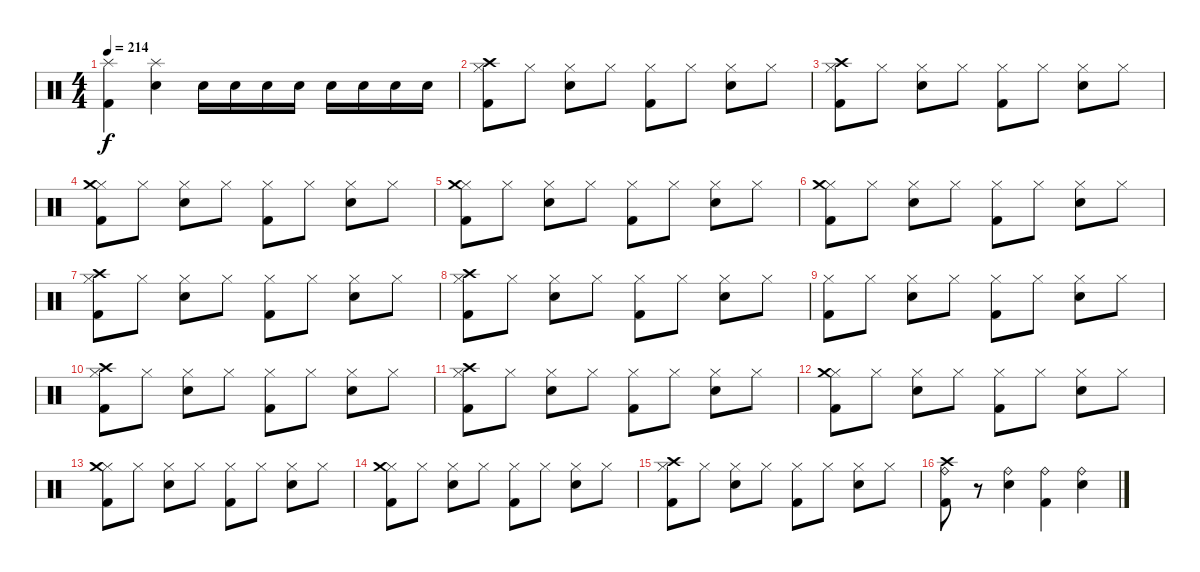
\track "" {instrument percussion}
\staff {score}
\articulation defaults
\ts (4 4)
\tempo 214
\clef neutral
\ks c
("Splash (hit)" "Kick (hit) 2").4{dy f} ("Splash (hit)" "Electric Snare (hit)").4 "Electric Snare (hit)".16 "Electric Snare (hit)".16 "Electric Snare (hit)".16 "Electric Snare (hit)".16 "Electric Snare (hit)".16 "Electric Snare (hit)".16 "Electric Snare (hit)".16 "Electric Snare (hit)".16 |
("Hi-Hat (closed)" "Crash high (hit)" "Kick (hit) 2").8 "Hi-Hat (closed)".8 ("Hi-Hat (closed)" "Electric Snare (hit)").8 "Hi-Hat (closed)".8 ("Hi-Hat (closed)" "Kick (hit) 2").8 "Hi-Hat (closed)".8 ("Hi-Hat (closed)" "Electric Snare (hit)").8 "Hi-Hat (closed)".8 |
("Hi-Hat (closed)" "Crash high (hit)" "Kick (hit) 2").8 "Hi-Hat (closed)".8 ("Hi-Hat (closed)" "Electric Snare (hit)").8 "Hi-Hat (closed)".8 ("Hi-Hat (closed)" "Kick (hit) 2").8 "Hi-Hat (closed)".8 ("Hi-Hat (closed)" "Electric Snare (hit)").8 "Hi-Hat (closed)".8 |
("Hi-Hat (closed)" "Crash medium (hit)" "Kick (hit) 2").8 "Hi-Hat (closed)".8 ("Hi-Hat (closed)" "Electric Snare (hit)").8 "Hi-Hat (closed)".8 ("Hi-Hat (closed)" "Kick (hit) 2").8 "Hi-Hat (closed)".8 ("Hi-Hat (closed)" "Electric Snare (hit)").8 "Hi-Hat (closed)".8 |
("Hi-Hat (closed)" "Crash medium (hit)" "Kick (hit) 2").8 "Hi-Hat (closed)".8 ("Hi-Hat (closed)" "Electric Snare (hit)").8 "Hi-Hat (closed)".8 ("Hi-Hat (closed)" "Kick (hit) 2").8 "Hi-Hat (closed)".8 ("Hi-Hat (closed)" "Electric Snare (hit)").8 "Hi-Hat (closed)".8 |
("Hi-Hat (closed)" "Kick (hit) 2" "Crash medium (hit)").8 "Hi-Hat (closed)".8 ("Hi-Hat (closed)" "Electric Snare (hit)").8 "Hi-Hat (closed)".8 ("Hi-Hat (closed)" "Kick (hit) 2").8 "Hi-Hat (closed)".8 ("Hi-Hat (closed)" "Electric Snare (hit)").8 "Hi-Hat (closed)".8 |
("Hi-Hat (closed)" "Kick (hit) 2" "Crash high (hit)").8 "Hi-Hat (closed)".8 ("Hi-Hat (closed)" "Electric Snare (hit)").8 "Hi-Hat (closed)".8 ("Hi-Hat (closed)" "Kick (hit) 2").8 "Hi-Hat (closed)".8 ("Hi-Hat (closed)" "Electric Snare (hit)").8 "Hi-Hat (closed)".8 |
("Hi-Hat (closed)" "Kick (hit) 2" "Crash high (hit)").8 "Hi-Hat (closed)".8 ("Hi-Hat (closed)" "Electric Snare (hit)").8 "Hi-Hat (closed)".8 ("Hi-Hat (closed)" "Kick (hit) 2").8 "Hi-Hat (closed)".8 ("Hi-Hat (closed)" "Electric Snare (hit)").8 "Hi-Hat (closed)".8 |
("Hi-Hat (closed)" "Kick (hit) 2").8 "Hi-Hat (closed)".8 ("Hi-Hat (closed)" "Electric Snare (hit)").8 "Hi-Hat (closed)".8 ("Hi-Hat (closed)" "Kick (hit) 2").8 "Hi-Hat (closed)".8 ("Hi-Hat (closed)" "Electric Snare (hit)").8 "Hi-Hat (closed)".8 |
("Hi-Hat (closed)" "Crash high (hit)" "Kick (hit) 2").8 "Hi-Hat (closed)".8 ("Hi-Hat (closed)" "Electric Snare (hit)").8 "Hi-Hat (closed)".8 ("Hi-Hat (closed)" "Kick (hit) 2").8 "Hi-Hat (closed)".8 ("Hi-Hat (closed)" "Electric Snare (hit)").8 "Hi-Hat (closed)".8 |
("Hi-Hat (closed)" "Crash high (hit)" "Kick (hit) 2").8 "Hi-Hat (closed)".8 ("Hi-Hat (closed)" "Electric Snare (hit)").8 "Hi-Hat (closed)".8 ("Hi-Hat (closed)" "Kick (hit) 2").8 "Hi-Hat (closed)".8 ("Hi-Hat (closed)" "Electric Snare (hit)").8 "Hi-Hat (closed)".8 |
("Hi-Hat (closed)" "Crash medium (hit)" "Kick (hit) 2").8 "Hi-Hat (closed)".8 ("Hi-Hat (closed)" "Electric Snare (hit)").8 "Hi-Hat (closed)".8 ("Hi-Hat (closed)" "Kick (hit) 2").8 "Hi-Hat (closed)".8 ("Hi-Hat (closed)" "Electric Snare (hit)").8 "Hi-Hat (closed)".8 |
("Hi-Hat (closed)" "Crash medium (hit)" "Kick (hit) 2").8 "Hi-Hat (closed)".8 ("Hi-Hat (closed)" "Electric Snare (hit)").8 "Hi-Hat (closed)".8 ("Hi-Hat (closed)" "Kick (hit) 2").8 "Hi-Hat (closed)".8 ("Hi-Hat (closed)" "Electric Snare (hit)").8 "Hi-Hat (closed)".8 |
("Hi-Hat (closed)" "Kick (hit) 2" "Crash medium (hit)").8 "Hi-Hat (closed)".8 ("Hi-Hat (closed)" "Electric Snare (hit)").8 "Hi-Hat (closed)".8 ("Hi-Hat (closed)" "Kick (hit) 2").8 "Hi-Hat (closed)".8 ("Hi-Hat (closed)" "Electric Snare (hit)").8 "Hi-Hat (closed)".8 |
("Hi-Hat (closed)" "Kick (hit) 2" "Crash high (hit)").8 "Hi-Hat (closed)".8 ("Hi-Hat (closed)" "Electric Snare (hit)").8 "Hi-Hat (closed)".8 ("Hi-Hat (closed)" "Kick (hit) 2").8 "Hi-Hat (closed)".8 ("Hi-Hat (closed)" "Electric Snare (hit)").8 "Hi-Hat (closed)".8 |
("Crash high (hit)" "Kick (hit) 2" "Ride (bell)").8 r.8 ("Ride (bell)" "Electric Snare (hit)").4 ("Ride (bell)" "Kick (hit) 2").4 ("Ride (bell)" "Electric Snare (hit)").4
